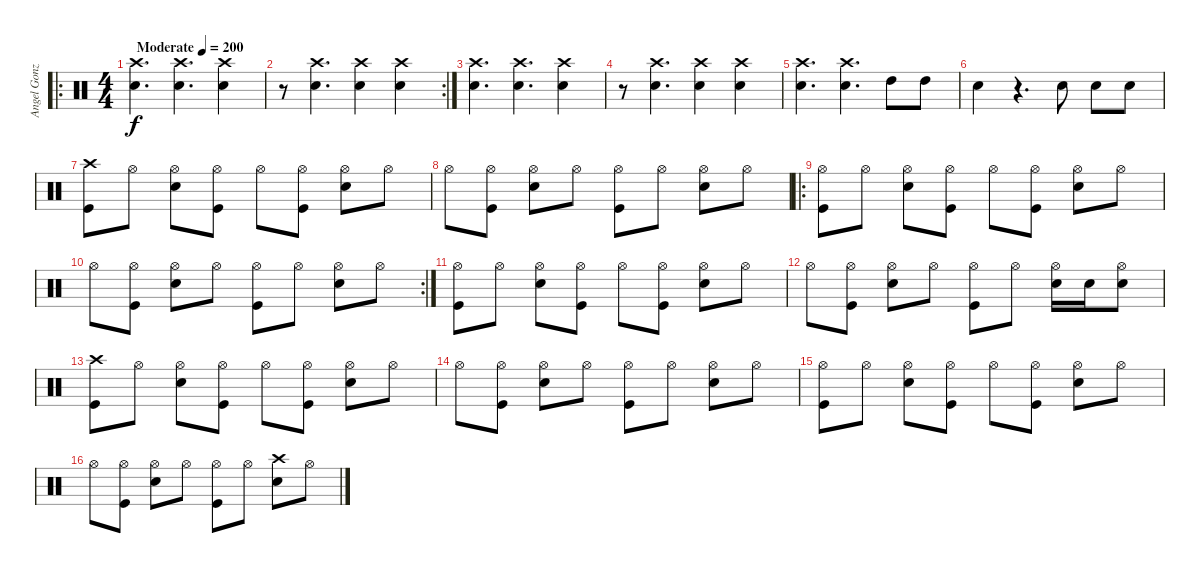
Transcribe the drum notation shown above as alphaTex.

\track ("Angel Gonzalez - Batería" "Angel Gonz") {instrument percussion}
\staff {score}
\articulation defaults
\ro
\ts (4 4)
\tempo (200 "Moderate")
\clef neutral
\ks c
("Crash high (hit)" "Snare (hit) 2").4{d dy f} ("Crash high (hit)" "Snare (hit) 2").4{d} ("Crash high (hit)" "Snare (hit) 2").4 |
\rc 2
r.8 ("Crash high (hit)" "Snare (hit) 2").4{d} ("Crash high (hit)" "Snare (hit) 2").4 ("Crash high (hit)" "Snare (hit) 2").4 |
("Crash high (hit)" "Snare (hit) 2").4{d} ("Crash high (hit)" "Snare (hit) 2").4{d} ("Crash high (hit)" "Snare (hit) 2").4 |
r.8 ("Crash high (hit)" "Snare (hit) 2").4{d} ("Crash high (hit)" "Snare (hit) 2").4 ("Crash high (hit)" "Snare (hit) 2").4 |
("Crash high (hit)" "Snare (hit) 2").4{d} ("Crash high (hit)" "Snare (hit) 2").4{d} "High Tom (hit)".8 "High Tom (hit)".8 |
"Snare (hit) 2".4 r.4{d} "Snare (hit) 2".8 "Snare (hit) 2".8 "Snare (hit) 2".8 |
("Crash high (hit)" "Kick (hit)").8 "Hi-Hat (open)".8 ("Snare (hit) 2" "Hi-Hat (open)").8 ("Hi-Hat (open)" "Kick (hit)").8 "Hi-Hat (open)".8 ("Hi-Hat (open)" "Kick (hit)").8 ("Snare (hit) 2" "Hi-Hat (open)").8 "Hi-Hat (open)".8 |
"Hi-Hat (open)".8 ("Hi-Hat (open)" "Kick (hit)").8 ("Snare (hit) 2" "Hi-Hat (open)").8 "Hi-Hat (open)".8 ("Hi-Hat (open)" "Kick (hit)").8 "Hi-Hat (open)".8 ("Snare (hit) 2" "Hi-Hat (open)").8 "Hi-Hat (open)".8 |
\ro
("Hi-Hat (open)" "Kick (hit)").8 "Hi-Hat (open)".8 ("Snare (hit) 2" "Hi-Hat (open)").8 ("Hi-Hat (open)" "Kick (hit)").8 "Hi-Hat (open)".8 ("Hi-Hat (open)" "Kick (hit)").8 ("Snare (hit) 2" "Hi-Hat (open)").8 "Hi-Hat (open)".8 |
\rc 2 "Hi-Hat (open)".8
("Hi-Hat (open)" "Kick (hit)").8 ("Snare (hit) 2" "Hi-Hat (open)").8 "Hi-Hat (open)".8 ("Hi-Hat (open)" "Kick (hit)").8 "Hi-Hat (open)".8 ("Snare (hit) 2" "Hi-Hat (open)").8 "Hi-Hat (open)".8 |
("Hi-Hat (open)" "Kick (hit)").8 "Hi-Hat (open)".8 ("Snare (hit) 2" "Hi-Hat (open)").8 ("Hi-Hat (open)" "Kick (hit)").8 "Hi-Hat (open)".8 ("Hi-Hat (open)" "Kick (hit)").8 ("Snare (hit) 2" "Hi-Hat (open)").8 "Hi-Hat (open)".8 |
"Hi-Hat (open)".8 ("Hi-Hat (open)" "Kick (hit)").8 ("Snare (hit) 2" "Hi-Hat (open)").8 "Hi-Hat (open)".8 ("Hi-Hat (open)" "Kick (hit)").8 "Hi-Hat (open)".8 ("Snare (hit) 2" "Hi-Hat (open)").16 "Snare (hit) 2".16 ("Snare (hit) 2" "Hi-Hat (open)").8 |
("Crash high (hit)" "Kick (hit)").8 "Hi-Hat (open)".8 ("Snare (hit) 2" "Hi-Hat (open)").8 ("Hi-Hat (open)" "Kick (hit)").8 "Hi-Hat (open)".8 ("Hi-Hat (open)" "Kick (hit)").8 ("Snare (hit) 2" "Hi-Hat (open)").8 "Hi-Hat (open)".8 |
"Hi-Hat (open)".8 ("Hi-Hat (open)" "Kick (hit)").8 ("Snare (hit) 2" "Hi-Hat (open)").8 "Hi-Hat (open)".8 ("Hi-Hat (open)" "Kick (hit)").8 "Hi-Hat (open)".8 ("Snare (hit) 2" "Hi-Hat (open)").8 "Hi-Hat (open)".8 |
("Hi-Hat (open)" "Kick (hit)").8 "Hi-Hat (open)".8 ("Snare (hit) 2" "Hi-Hat (open)").8 ("Hi-Hat (open)" "Kick (hit)").8 "Hi-Hat (open)".8 ("Hi-Hat (open)" "Kick (hit)").8 ("Snare (hit) 2" "Hi-Hat (open)").8 "Hi-Hat (open)".8 |
"Hi-Hat (open)".8 ("Hi-Hat (open)" "Kick (hit)").8 ("Snare (hit) 2" "Hi-Hat (open)").8 "Hi-Hat (open)".8 ("Hi-Hat (open)" "Kick (hit)").8 "Hi-Hat (open)".8 ("Crash high (hit)" "Snare (hit) 2").8 "Hi-Hat (open)".8
